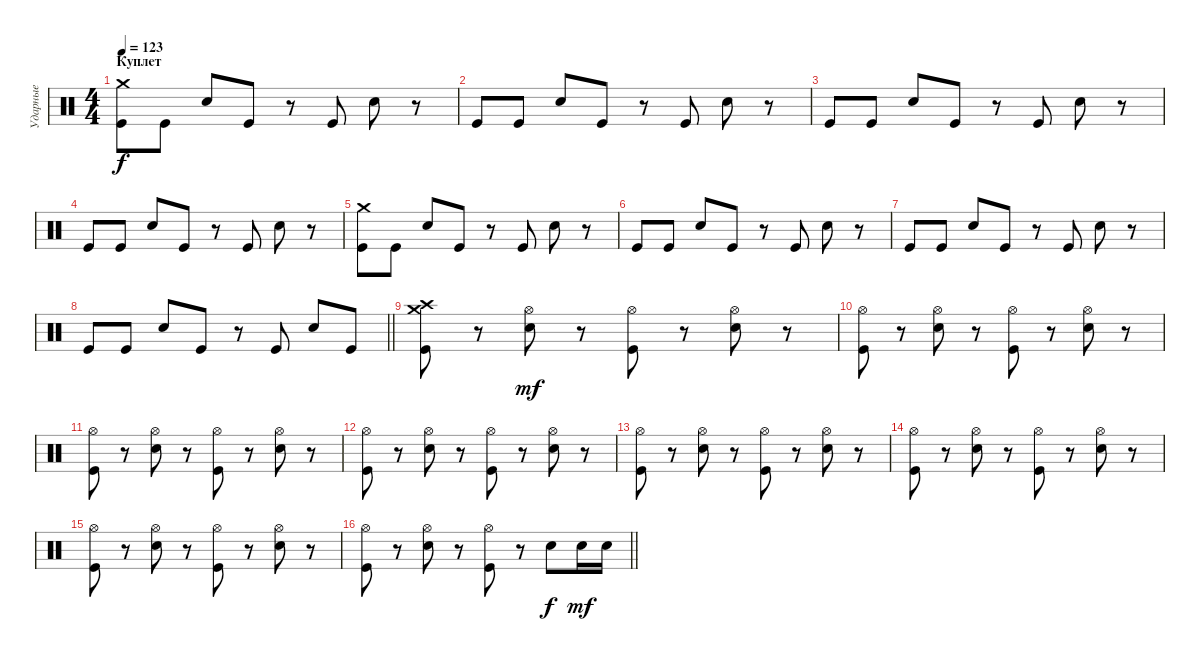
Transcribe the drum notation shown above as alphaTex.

\track ("Ударные" "Ударные") {instrument percussion}
\staff {score}
\articulation defaults
\ts (4 4)
\section ("" "Куплет")
\tempo 123
\clef neutral
\ks c
("Crash medium (hit)" "Kick (hit)").8{dy f} "Kick (hit)".8 "Electric Snare (hit)".8 "Kick (hit)".8 r.8 "Kick (hit)".8 "Electric Snare (hit)".8 r.8 |
"Kick (hit)".8 "Kick (hit)".8 "Electric Snare (hit)".8 "Kick (hit)".8 r.8 "Kick (hit)".8 "Electric Snare (hit)".8 r.8 |
"Kick (hit)".8 "Kick (hit)".8 "Electric Snare (hit)".8 "Kick (hit)".8 r.8 "Kick (hit)".8 "Electric Snare (hit)".8 r.8 |
"Kick (hit)".8 "Kick (hit)".8 "Electric Snare (hit)".8 "Kick (hit)".8 r.8 "Kick (hit)".8 "Electric Snare (hit)".8 r.8 |
("Crash medium (hit)" "Kick (hit)").8 "Kick (hit)".8 "Electric Snare (hit)".8 "Kick (hit)".8 r.8 "Kick (hit)".8 "Electric Snare (hit)".8 r.8 |
"Kick (hit)".8 "Kick (hit)".8 "Electric Snare (hit)".8 "Kick (hit)".8 r.8 "Kick (hit)".8 "Electric Snare (hit)".8 r.8 |
"Kick (hit)".8 "Kick (hit)".8 "Electric Snare (hit)".8 "Kick (hit)".8 r.8 "Kick (hit)".8 "Electric Snare (hit)".8 r.8 |
\barLineRight lightlight "Kick (hit)".8 "Kick (hit)".8 "Electric Snare (hit)".8 "Kick (hit)".8
r.8 "Kick (hit)".8 "Electric Snare (hit)".8 "Kick (hit)".8 |
\section ("" " ")
("Crash high (hit)" "Kick (hit)" "Crash medium (hit)").8 r.8 ("Hi-Hat (open)" "Electric Snare (hit)").8{dy mf} r.8 ("Hi-Hat (open)" "Kick (hit)").8 r.8 ("Hi-Hat (open)" "Electric Snare (hit)").8 r.8 |
("Hi-Hat (open)" "Kick (hit)").8 r.8 ("Hi-Hat (open)" "Electric Snare (hit)").8 r.8 ("Hi-Hat (open)" "Kick (hit)").8 r.8 ("Hi-Hat (open)" "Electric Snare (hit)").8 r.8 |
("Hi-Hat (open)" "Kick (hit)").8 r.8 ("Hi-Hat (open)" "Electric Snare (hit)").8 r.8 ("Hi-Hat (open)" "Kick (hit)").8 r.8 ("Hi-Hat (open)" "Electric Snare (hit)").8 r.8 |
("Hi-Hat (open)" "Kick (hit)").8 r.8 ("Hi-Hat (open)" "Electric Snare (hit)").8 r.8 ("Hi-Hat (open)" "Kick (hit)").8 r.8 ("Hi-Hat (open)" "Electric Snare (hit)").8 r.8 |
("Hi-Hat (open)" "Kick (hit)").8 r.8 ("Hi-Hat (open)" "Electric Snare (hit)").8 r.8 ("Hi-Hat (open)" "Kick (hit)").8 r.8 ("Hi-Hat (open)" "Electric Snare (hit)").8 r.8 |
("Hi-Hat (open)" "Kick (hit)").8 r.8 ("Hi-Hat (open)" "Electric Snare (hit)").8 r.8 ("Hi-Hat (open)" "Kick (hit)").8 r.8 ("Hi-Hat (open)" "Electric Snare (hit)").8 r.8 |
("Hi-Hat (open)" "Kick (hit)").8 r.8 ("Hi-Hat (open)" "Electric Snare (hit)").8 r.8 ("Hi-Hat (open)" "Kick (hit)").8 r.8 ("Hi-Hat (open)" "Electric Snare (hit)").8 r.8 |
\barLineRight lightlight
("Hi-Hat (open)" "Kick (hit)").8 r.8 ("Hi-Hat (open)" "Electric Snare (hit)").8 r.8 ("Hi-Hat (open)" "Kick (hit)").8 r.8 "Electric Snare (hit)".8{dy f} "Electric Snare (hit)".16{dy mf} "Electric Snare (hit)".16
